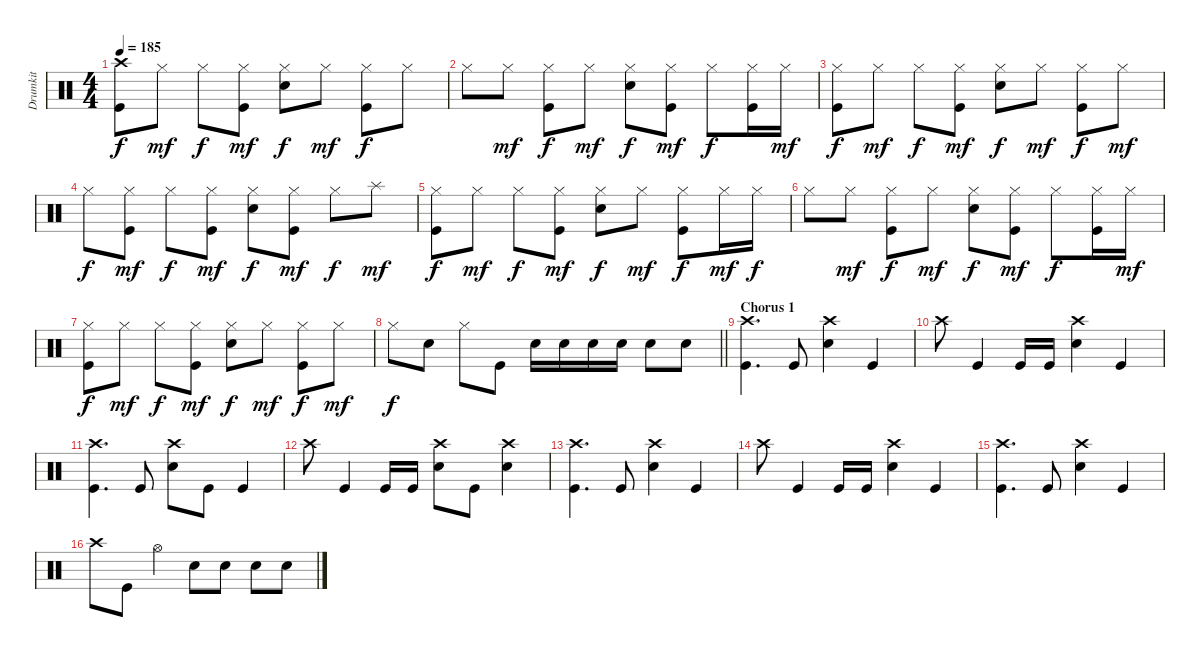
\track ("Drumkit" "Drumkit") {instrument percussion}
\staff {score}
\articulation defaults
\ts (4 4)
\tempo 185
\clef neutral
\ks c
("Crash high (hit)" "Kick (hit)").8{dy f} "Hi-Hat (closed)".8{dy mf} "Hi-Hat (closed)".8{dy f} ("Hi-Hat (closed)" "Kick (hit)").8{dy mf} ("Hi-Hat (closed)" "Snare (hit) 2").8{dy f} "Hi-Hat (closed)".8{dy mf} ("Hi-Hat (closed)" "Kick (hit)").8{dy f} "Hi-Hat (closed)".8 |
"Hi-Hat (closed)".8 "Hi-Hat (closed)".8{dy mf} ("Hi-Hat (closed)" "Kick (hit)").8{dy f} "Hi-Hat (closed)".8{dy mf} ("Hi-Hat (closed)" "Snare (hit) 2").8{dy f} ("Hi-Hat (closed)" "Kick (hit)").8{dy mf} "Hi-Hat (closed)".8{dy f} ("Hi-Hat (closed)" "Kick (hit)").16 "Hi-Hat (closed)".16{dy mf} |
("Hi-Hat (closed)" "Kick (hit)").8{dy f} "Hi-Hat (closed)".8{dy mf} "Hi-Hat (closed)".8{dy f} ("Hi-Hat (closed)" "Kick (hit)").8{dy mf} ("Hi-Hat (closed)" "Snare (hit) 2").8{dy f} "Hi-Hat (closed)".8{dy mf} ("Hi-Hat (closed)" "Kick (hit)").8{dy f} "Hi-Hat (closed)".8{dy mf} |
"Hi-Hat (closed)".8{dy f} ("Hi-Hat (closed)" "Kick (hit)").8{dy mf} "Hi-Hat (closed)".8{dy f} ("Hi-Hat (closed)" "Kick (hit)").8{dy mf} ("Hi-Hat (closed)" "Snare (hit) 2").8{dy f} ("Hi-Hat (closed)" "Kick (hit)").8{dy mf} "Hi-Hat (closed)".8{dy f} "Splash (hit)".8{dy mf} |
("Hi-Hat (closed)" "Kick (hit)").8{dy f} "Hi-Hat (closed)".8{dy mf} "Hi-Hat (closed)".8{dy f} ("Hi-Hat (closed)" "Kick (hit)").8{dy mf} ("Hi-Hat (closed)" "Snare (hit) 2").8{dy f} "Hi-Hat (closed)".8{dy mf} ("Hi-Hat (closed)" "Kick (hit)").8{dy f} "Hi-Hat (closed)".16{dy mf} "Hi-Hat (closed)".16{dy f} |
"Hi-Hat (closed)".8 "Hi-Hat (closed)".8{dy mf} ("Hi-Hat (closed)" "Kick (hit)").8{dy f} "Hi-Hat (closed)".8{dy mf} ("Hi-Hat (closed)" "Snare (hit) 2").8{dy f} ("Hi-Hat (closed)" "Kick (hit)").8{dy mf} "Hi-Hat (closed)".8{dy f} ("Hi-Hat (closed)" "Kick (hit)").16 "Hi-Hat (closed)".16{dy mf} |
("Hi-Hat (closed)" "Kick (hit)").8{dy f} "Hi-Hat (closed)".8{dy mf} "Hi-Hat (closed)".8{dy f} ("Hi-Hat (closed)" "Kick (hit)").8{dy mf} ("Hi-Hat (closed)" "Snare (hit) 2").8{dy f} "Hi-Hat (closed)".8{dy mf} ("Hi-Hat (closed)" "Kick (hit)").8{dy f} "Hi-Hat (closed)".8{dy mf} |
\barLineRight lightlight "Hi-Hat (closed)".8{dy f} "Snare (hit) 2".8 "Hi-Hat (closed)".8 "Kick (hit)".8 "Snare (hit) 2".16 "Snare (hit) 2".16 "Snare (hit) 2".16 "Snare (hit) 2".16 "Snare (hit) 2".8 "Snare (hit) 2".8
|
\section ("" "Chorus 1")
("Crash high (hit)" "Kick (hit)").4{d} "Kick (hit)".8 ("Snare (hit) 2" "Crash high (hit)").4 "Kick (hit)".4 |
"Crash high (hit)".8 "Kick (hit)".4 "Kick (hit)".16 "Kick (hit)".16 ("Snare (hit) 2" "Crash high (hit)").4 "Kick (hit)".4 |
("Crash high (hit)" "Kick (hit)").4{d} "Kick (hit)".8 ("Snare (hit) 2" "Crash high (hit)").8 "Kick (hit)".8 "Kick (hit)".4 |
"Crash high (hit)".8 "Kick (hit)".4 "Kick (hit)".16 "Kick (hit)".16 ("Crash high (hit)" "Snare (hit) 2").8 "Kick (hit)".8 ("Crash high (hit)" "Snare (hit) 2").4 |
("Crash high (hit)" "Kick (hit)").4{d} "Kick (hit)".8 ("Snare (hit) 2" "Crash high (hit)").4 "Kick (hit)".4 |
"Crash high (hit)".8 "Kick (hit)".4 "Kick (hit)".16 "Kick (hit)".16 ("Snare (hit) 2" "Crash high (hit)").4 "Kick (hit)".4 |
("Crash high (hit)" "Kick (hit)").4{d} "Kick (hit)".8 ("Snare (hit) 2" "Crash high (hit)").4 "Kick (hit)".4 |
"Crash high (hit)".8 "Kick (hit)".8 "Hi-Hat (open)".4 "Snare (hit) 2".8 "Snare (hit) 2".8 "Snare (hit) 2".8 "Snare (hit) 2".8
